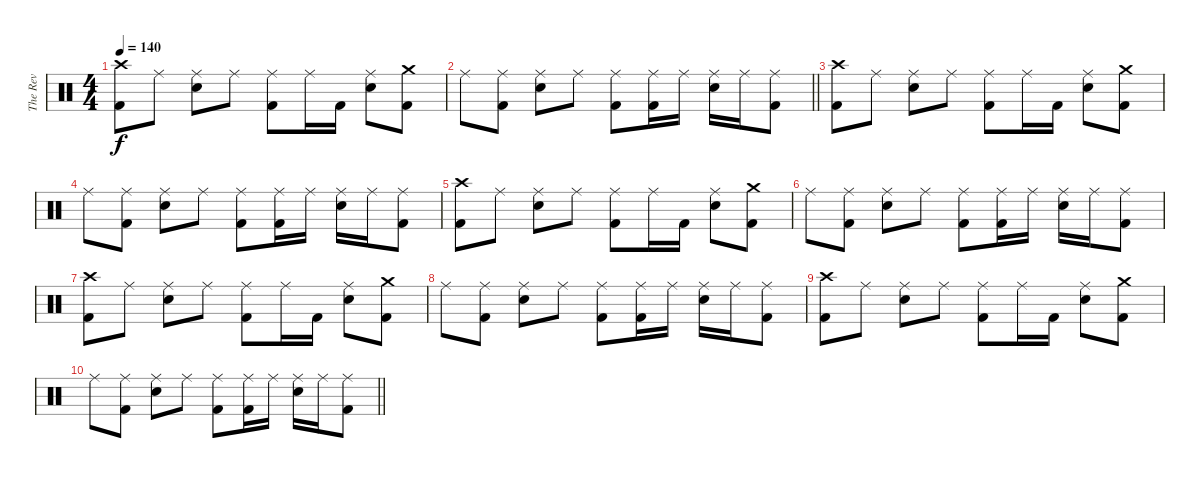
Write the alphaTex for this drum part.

\track ("The Rev" "The Rev") {instrument percussion}
\staff {score}
\articulation defaults
\ts (4 4)
\tempo 140
\clef neutral
\ks c
("Crash high (hit)" "Kick (hit) 2").8{dy f} "Ride (middle)".8 ("Ride (middle)" "Electric Snare (hit)").8 "Ride (middle)".8 ("Ride (middle)" "Kick (hit) 2").8 "Ride (middle)".16 "Kick (hit) 2".16 ("Ride (middle)" "Electric Snare (hit)").8 ("Crash medium (hit)" "Kick (hit) 2").8 |
\barLineRight lightlight "Ride (middle)".8
("Ride (middle)" "Kick (hit) 2").8 ("Ride (middle)" "Electric Snare (hit)").8 "Ride (middle)".8 ("Ride (middle)" "Kick (hit) 2").8 ("Ride (middle)" "Kick (hit) 2").16 "Ride (middle)".16 ("Ride (middle)" "Electric Snare (hit)").16 "Ride (middle)".16 ("Ride (middle)" "Kick (hit) 2").8 |
\section ("" " ")
("Crash high (hit)" "Kick (hit) 2").8 "Ride (middle)".8 ("Ride (middle)" "Electric Snare (hit)").8 "Ride (middle)".8 ("Ride (middle)" "Kick (hit) 2").8 "Ride (middle)".16 "Kick (hit) 2".16 ("Ride (middle)" "Electric Snare (hit)").8 ("Crash medium (hit)" "Kick (hit) 2").8 |
"Ride (middle)".8 ("Ride (middle)" "Kick (hit) 2").8 ("Ride (middle)" "Electric Snare (hit)").8 "Ride (middle)".8 ("Ride (middle)" "Kick (hit) 2").8 ("Ride (middle)" "Kick (hit) 2").16 "Ride (middle)".16 ("Ride (middle)" "Electric Snare (hit)").16 "Ride (middle)".16 ("Ride (middle)" "Kick (hit) 2").8 |
("Crash high (hit)" "Kick (hit) 2").8 "Ride (middle)".8 ("Ride (middle)" "Electric Snare (hit)").8 "Ride (middle)".8 ("Ride (middle)" "Kick (hit) 2").8 "Ride (middle)".16 "Kick (hit) 2".16 ("Ride (middle)" "Electric Snare (hit)").8 ("Crash medium (hit)" "Kick (hit) 2").8 |
"Ride (middle)".8{volume 0} ("Ride (middle)" "Kick (hit) 2").8 ("Ride (middle)" "Electric Snare (hit)").8 "Ride (middle)".8 ("Ride (middle)" "Kick (hit) 2").8 ("Ride (middle)" "Kick (hit) 2").16 "Ride (middle)".16 ("Ride (middle)" "Electric Snare (hit)").16 "Ride (middle)".16 ("Ride (middle)" "Kick (hit) 2").8 |
("Crash high (hit)" "Kick (hit) 2").8 "Ride (middle)".8 ("Ride (middle)" "Electric Snare (hit)").8 "Ride (middle)".8 ("Ride (middle)" "Kick (hit) 2").8 "Ride (middle)".16 "Kick (hit) 2".16 ("Ride (middle)" "Electric Snare (hit)").8 ("Crash medium (hit)" "Kick (hit) 2").8 |
"Ride (middle)".8 ("Ride (middle)" "Kick (hit) 2").8 ("Ride (middle)" "Electric Snare (hit)").8 "Ride (middle)".8 ("Ride (middle)" "Kick (hit) 2").8 ("Ride (middle)" "Kick (hit) 2").16 "Ride (middle)".16 ("Ride (middle)" "Electric Snare (hit)").16 "Ride (middle)".16 ("Ride (middle)" "Kick (hit) 2").8 |
("Crash high (hit)" "Kick (hit) 2").8 "Ride (middle)".8 ("Ride (middle)" "Electric Snare (hit)").8 "Ride (middle)".8 ("Ride (middle)" "Kick (hit) 2").8 "Ride (middle)".16 "Kick (hit) 2".16 ("Ride (middle)" "Electric Snare (hit)").8 ("Crash medium (hit)" "Kick (hit) 2").8 |
\barLineRight lightlight "Ride (middle)".8
("Ride (middle)" "Kick (hit) 2").8 ("Ride (middle)" "Electric Snare (hit)").8 "Ride (middle)".8 ("Ride (middle)" "Kick (hit) 2").8 ("Ride (middle)" "Kick (hit) 2").16 "Ride (middle)".16 ("Ride (middle)" "Electric Snare (hit)").16 "Ride (middle)".16 ("Ride (middle)" "Kick (hit) 2").8
